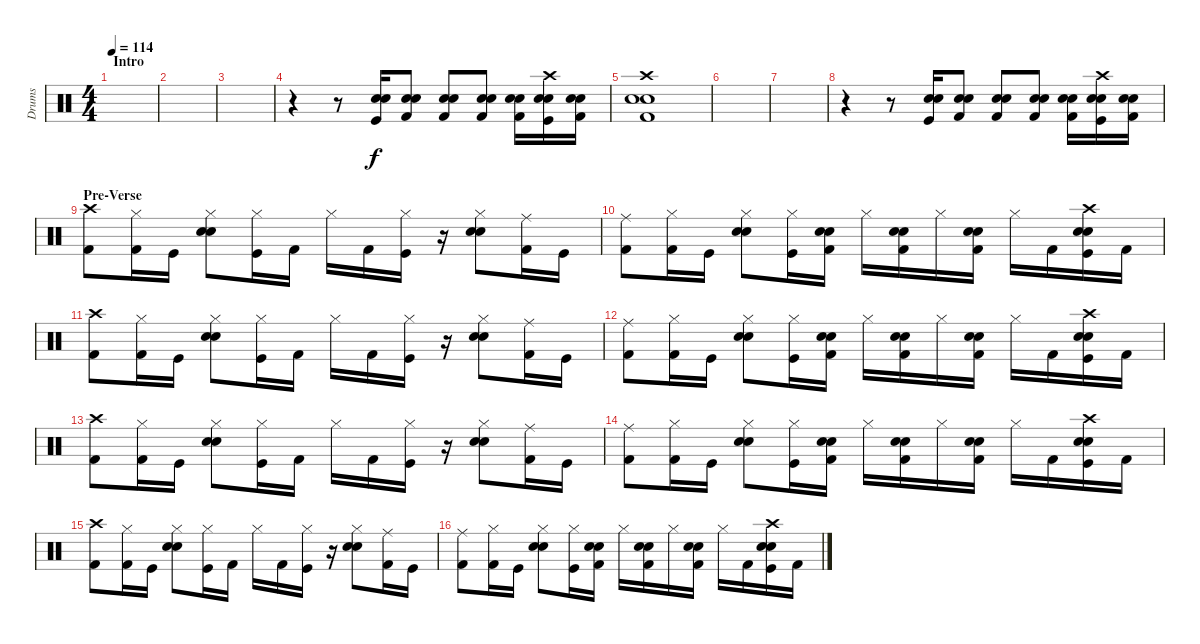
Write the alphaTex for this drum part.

\track ("Drums" "Drums") {instrument percussion}
\staff {score}
\articulation defaults
\ts (4 4)
\section ("" "Intro")
\tempo 114
\clef neutral
\ks c
|
|
|
r.4 r.8 ("Electric Snare (hit)" "Snare (hit) 2" "Kick (hit)").16 ("Electric Snare (hit)" "Snare (hit) 2" "Kick (hit) 2").8 ("Electric Snare (hit)" "Snare (hit) 2" "Kick (hit) 2").8 ("Electric Snare (hit)" "Snare (hit) 2" "Kick (hit) 2").8 ("Electric Snare (hit)" "Snare (hit) 2" "Kick (hit) 2").16 ("Crash high (hit)" "Electric Snare (hit)" "Snare (hit) 2" "Kick (hit)").16 ("Electric Snare (hit)" "Snare (hit) 2" "Kick (hit) 2").16 |
("Crash high (hit)" "Electric Snare (hit)" "Snare (hit) 2" "Kick (hit) 2").1 |
|
|
r.4 r.8 ("Electric Snare (hit)" "Snare (hit) 2" "Kick (hit)").16 ("Electric Snare (hit)" "Snare (hit) 2" "Kick (hit) 2").8 ("Electric Snare (hit)" "Snare (hit) 2" "Kick (hit) 2").8 ("Electric Snare (hit)" "Snare (hit) 2" "Kick (hit) 2").8 ("Electric Snare (hit)" "Snare (hit) 2" "Kick (hit) 2").16 ("Crash high (hit)" "Electric Snare (hit)" "Snare (hit) 2" "Kick (hit)").16 ("Electric Snare (hit)" "Snare (hit) 2" "Kick (hit) 2").16 |
\section ("" "Pre-Verse")
("Crash high (hit)" "Kick (hit) 2").8 ("Hi-Hat (closed)" "Kick (hit) 2").16 "Kick (hit)".16 ("Hi-Hat (closed)" "Electric Snare (hit)" "Snare (hit) 2").8 ("Hi-Hat (closed)" "Kick (hit)").16 "Kick (hit) 2".16 "Hi-Hat (closed)".16 "Kick (hit) 2".16 ("Hi-Hat (closed)" "Kick (hit)").16 r.16 ("Hi-Hat (closed)" "Electric Snare (hit)" "Snare (hit) 2").8 ("Ride (middle)" "Kick (hit) 2").16 "Kick (hit)".16 |
("Ride (middle)" "Kick (hit) 2").8 ("Hi-Hat (closed)" "Kick (hit) 2").16 "Kick (hit)".16 ("Hi-Hat (closed)" "Electric Snare (hit)" "Snare (hit) 2").8 ("Hi-Hat (closed)" "Kick (hit)").16 ("Electric Snare (hit)" "Snare (hit) 2" "Kick (hit) 2").16 "Hi-Hat (closed)".16 ("Electric Snare (hit)" "Snare (hit) 2" "Kick (hit) 2").16 "Hi-Hat (closed)".16 ("Electric Snare (hit)" "Snare (hit) 2" "Kick (hit) 2").16 "Hi-Hat (closed)".16 "Kick (hit) 2".16 ("Crash high (hit)" "Electric Snare (hit)" "Snare (hit) 2" "Kick (hit)").16 "Kick (hit) 2".16 |
("Crash high (hit)" "Kick (hit) 2").8 ("Hi-Hat (closed)" "Kick (hit) 2").16 "Kick (hit)".16 ("Hi-Hat (closed)" "Electric Snare (hit)" "Snare (hit) 2").8 ("Hi-Hat (closed)" "Kick (hit)").16 "Kick (hit) 2".16 "Hi-Hat (closed)".16 "Kick (hit) 2".16 ("Hi-Hat (closed)" "Kick (hit)").16 r.16 ("Hi-Hat (closed)" "Electric Snare (hit)" "Snare (hit) 2").8 ("Ride (middle)" "Kick (hit) 2").16 "Kick (hit)".16 |
("Ride (middle)" "Kick (hit) 2").8 ("Hi-Hat (closed)" "Kick (hit) 2").16 "Kick (hit)".16 ("Hi-Hat (closed)" "Electric Snare (hit)" "Snare (hit) 2").8 ("Hi-Hat (closed)" "Kick (hit)").16 ("Electric Snare (hit)" "Snare (hit) 2" "Kick (hit) 2").16 "Hi-Hat (closed)".16 ("Electric Snare (hit)" "Snare (hit) 2" "Kick (hit) 2").16 "Hi-Hat (closed)".16 ("Electric Snare (hit)" "Snare (hit) 2" "Kick (hit) 2").16 "Hi-Hat (closed)".16 "Kick (hit) 2".16 ("Crash high (hit)" "Electric Snare (hit)" "Snare (hit) 2" "Kick (hit)").16 "Kick (hit) 2".16 |
("Crash high (hit)" "Kick (hit) 2").8 ("Hi-Hat (closed)" "Kick (hit) 2").16 "Kick (hit)".16 ("Hi-Hat (closed)" "Electric Snare (hit)" "Snare (hit) 2").8 ("Hi-Hat (closed)" "Kick (hit)").16 "Kick (hit) 2".16 "Hi-Hat (closed)".16 "Kick (hit) 2".16 ("Hi-Hat (closed)" "Kick (hit)").16 r.16 ("Hi-Hat (closed)" "Electric Snare (hit)" "Snare (hit) 2").8 ("Ride (middle)" "Kick (hit) 2").16 "Kick (hit)".16 |
("Ride (middle)" "Kick (hit) 2").8 ("Hi-Hat (closed)" "Kick (hit) 2").16 "Kick (hit)".16 ("Hi-Hat (closed)" "Electric Snare (hit)" "Snare (hit) 2").8 ("Hi-Hat (closed)" "Kick (hit)").16 ("Electric Snare (hit)" "Snare (hit) 2" "Kick (hit) 2").16 "Hi-Hat (closed)".16 ("Electric Snare (hit)" "Snare (hit) 2" "Kick (hit) 2").16 "Hi-Hat (closed)".16 ("Electric Snare (hit)" "Snare (hit) 2" "Kick (hit) 2").16 "Hi-Hat (closed)".16 "Kick (hit) 2".16 ("Crash high (hit)" "Electric Snare (hit)" "Snare (hit) 2" "Kick (hit)").16 "Kick (hit) 2".16 |
("Crash high (hit)" "Kick (hit) 2").8 ("Hi-Hat (closed)" "Kick (hit) 2").16 "Kick (hit)".16 ("Hi-Hat (closed)" "Electric Snare (hit)" "Snare (hit) 2").8 ("Hi-Hat (closed)" "Kick (hit)").16 "Kick (hit) 2".16 "Hi-Hat (closed)".16 "Kick (hit) 2".16 ("Hi-Hat (closed)" "Kick (hit)").16 r.16 ("Hi-Hat (closed)" "Electric Snare (hit)" "Snare (hit) 2").8 ("Ride (middle)" "Kick (hit) 2").16 "Kick (hit)".16 |
("Ride (middle)" "Kick (hit) 2").8 ("Hi-Hat (closed)" "Kick (hit) 2").16 "Kick (hit)".16 ("Hi-Hat (closed)" "Electric Snare (hit)" "Snare (hit) 2").8 ("Hi-Hat (closed)" "Kick (hit)").16 ("Electric Snare (hit)" "Snare (hit) 2" "Kick (hit) 2").16 "Hi-Hat (closed)".16 ("Electric Snare (hit)" "Snare (hit) 2" "Kick (hit) 2").16 "Hi-Hat (closed)".16 ("Electric Snare (hit)" "Snare (hit) 2" "Kick (hit) 2").16 "Hi-Hat (closed)".16 "Kick (hit) 2".16 ("Crash high (hit)" "Electric Snare (hit)" "Snare (hit) 2" "Kick (hit)").16 "Kick (hit) 2".16
